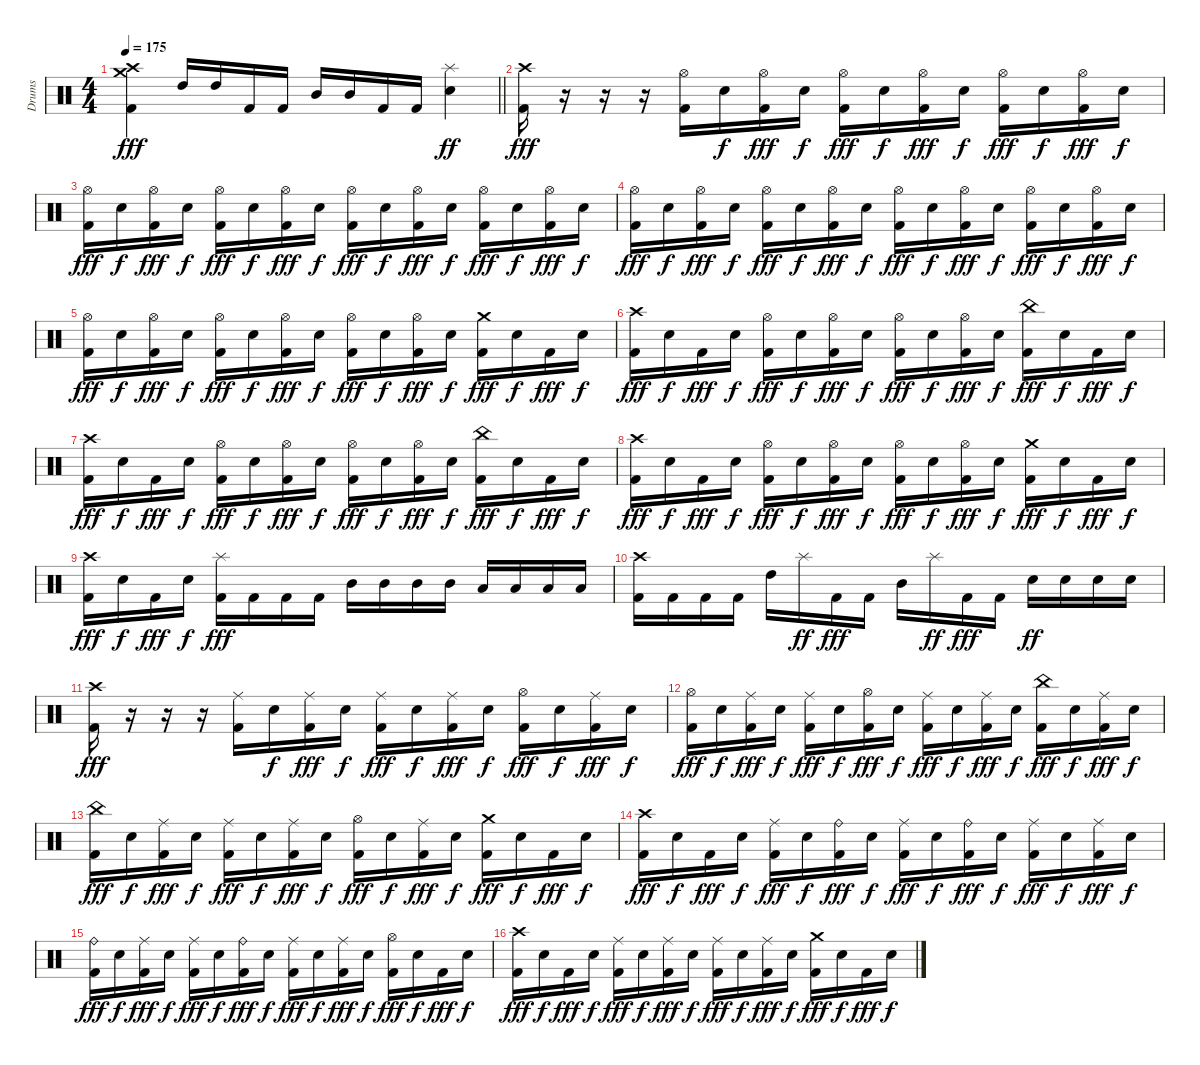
\track ("Drums" "Drums") {instrument percussion}
\staff {score}
\articulation defaults
\ts (4 4)
\tempo 175
\clef neutral
\barLineRight lightlight
\ks c
("Crash high (hit)" "Crash medium (hit)" "Kick (hit) 2").4{dy fff} "High Tom (hit)".16 "High Tom (hit)".16 "Kick (hit) 2".16 "Kick (hit) 2".16 "Mid Tom (hit)".16 "Mid Tom (hit)".16 "Kick (hit) 2".16 "Kick (hit) 2".16 ("Splash (hit)" "Snare (hit) 2").4{dy ff} |
("Crash high (hit)" "Kick (hit) 2").16{dy fff} r.16 r.16 r.16 ("Hi-Hat (open)" "Kick (hit) 2").16 "Snare (hit) 2".16{dy f} ("Hi-Hat (open)" "Kick (hit) 2").16{dy fff} "Snare (hit) 2".16{dy f} ("Hi-Hat (open)" "Kick (hit) 2").16{dy fff} "Snare (hit) 2".16{dy f} ("Hi-Hat (open)" "Kick (hit) 2").16{dy fff} "Snare (hit) 2".16{dy f} ("Hi-Hat (open)" "Kick (hit) 2").16{dy fff} "Snare (hit) 2".16{dy f} ("Hi-Hat (open)" "Kick (hit) 2").16{dy fff} "Snare (hit) 2".16{dy f} |
("Hi-Hat (open)" "Kick (hit) 2").16{dy fff} "Snare (hit) 2".16{dy f} ("Hi-Hat (open)" "Kick (hit) 2").16{dy fff} "Snare (hit) 2".16{dy f} ("Hi-Hat (open)" "Kick (hit) 2").16{dy fff} "Snare (hit) 2".16{dy f} ("Hi-Hat (open)" "Kick (hit) 2").16{dy fff} "Snare (hit) 2".16{dy f} ("Hi-Hat (open)" "Kick (hit) 2").16{dy fff} "Snare (hit) 2".16{dy f} ("Hi-Hat (open)" "Kick (hit) 2").16{dy fff} "Snare (hit) 2".16{dy f} ("Hi-Hat (open)" "Kick (hit) 2").16{dy fff} "Snare (hit) 2".16{dy f} ("Hi-Hat (open)" "Kick (hit) 2").16{dy fff} "Snare (hit) 2".16{dy f} |
("Hi-Hat (open)" "Kick (hit) 2").16{dy fff} "Snare (hit) 2".16{dy f} ("Hi-Hat (open)" "Kick (hit) 2").16{dy fff} "Snare (hit) 2".16{dy f} ("Hi-Hat (open)" "Kick (hit) 2").16{dy fff} "Snare (hit) 2".16{dy f} ("Hi-Hat (open)" "Kick (hit) 2").16{dy fff} "Snare (hit) 2".16{dy f} ("Hi-Hat (open)" "Kick (hit) 2").16{dy fff} "Snare (hit) 2".16{dy f} ("Hi-Hat (open)" "Kick (hit) 2").16{dy fff} "Snare (hit) 2".16{dy f} ("Hi-Hat (open)" "Kick (hit) 2").16{dy fff} "Snare (hit) 2".16{dy f} ("Hi-Hat (open)" "Kick (hit) 2").16{dy fff} "Snare (hit) 2".16{dy f} |
("Hi-Hat (open)" "Kick (hit) 2").16{dy fff} "Snare (hit) 2".16{dy f} ("Hi-Hat (open)" "Kick (hit) 2").16{dy fff} "Snare (hit) 2".16{dy f} ("Hi-Hat (open)" "Kick (hit) 2").16{dy fff} "Snare (hit) 2".16{dy f} ("Hi-Hat (open)" "Kick (hit) 2").16{dy fff} "Snare (hit) 2".16{dy f} ("Hi-Hat (open)" "Kick (hit) 2").16{dy fff} "Snare (hit) 2".16{dy f} ("Hi-Hat (open)" "Kick (hit) 2").16{dy fff} "Snare (hit) 2".16{dy f} ("Crash medium (hit)" "Kick (hit) 2").16{dy fff} "Snare (hit) 2".16{dy f} "Kick (hit) 2".16{dy fff} "Snare (hit) 2".16{dy f} |
("Crash high (hit)" "Kick (hit) 2").16{dy fff} "Snare (hit) 2".16{dy f} "Kick (hit) 2".16{dy fff} "Snare (hit) 2".16{dy f} ("Hi-Hat (open)" "Kick (hit) 2").16{dy fff} "Snare (hit) 2".16{dy f} ("Hi-Hat (open)" "Kick (hit) 2").16{dy fff} "Snare (hit) 2".16{dy f} ("Hi-Hat (open)" "Kick (hit) 2").16{dy fff} "Snare (hit) 2".16{dy f} ("Hi-Hat (open)" "Kick (hit) 2").16{dy fff} "Snare (hit) 2".16{dy f} ("China (hit)" "Kick (hit) 2").16{dy fff} "Snare (hit) 2".16{dy f} "Kick (hit) 2".16{dy fff} "Snare (hit) 2".16{dy f} |
("Crash high (hit)" "Kick (hit) 2").16{dy fff} "Snare (hit) 2".16{dy f} "Kick (hit) 2".16{dy fff} "Snare (hit) 2".16{dy f} ("Hi-Hat (open)" "Kick (hit) 2").16{dy fff} "Snare (hit) 2".16{dy f} ("Hi-Hat (open)" "Kick (hit) 2").16{dy fff} "Snare (hit) 2".16{dy f} ("Hi-Hat (open)" "Kick (hit) 2").16{dy fff} "Snare (hit) 2".16{dy f} ("Hi-Hat (open)" "Kick (hit) 2").16{dy fff} "Snare (hit) 2".16{dy f} ("China (hit)" "Kick (hit) 2").16{dy fff} "Snare (hit) 2".16{dy f} "Kick (hit) 2".16{dy fff} "Snare (hit) 2".16{dy f} |
("Crash high (hit)" "Kick (hit) 2").16{dy fff} "Snare (hit) 2".16{dy f} "Kick (hit) 2".16{dy fff} "Snare (hit) 2".16{dy f} ("Hi-Hat (open)" "Kick (hit) 2").16{dy fff} "Snare (hit) 2".16{dy f} ("Hi-Hat (open)" "Kick (hit) 2").16{dy fff} "Snare (hit) 2".16{dy f} ("Hi-Hat (open)" "Kick (hit) 2").16{dy fff} "Snare (hit) 2".16{dy f} ("Hi-Hat (open)" "Kick (hit) 2").16{dy fff} "Snare (hit) 2".16{dy f} ("Crash medium (hit)" "Kick (hit) 2").16{dy fff} "Snare (hit) 2".16{dy f} "Kick (hit) 2".16{dy fff} "Snare (hit) 2".16{dy f} |
("Crash high (hit)" "Kick (hit) 2").16{dy fff} "Snare (hit) 2".16{dy f} "Kick (hit) 2".16{dy fff} "Snare (hit) 2".16{dy f} ("Splash (hit)" "Kick (hit) 2").16{dy fff} "Kick (hit) 2".16 "Kick (hit) 2".16 "Kick (hit) 2".16 "Mid Tom (hit)".16 "Mid Tom (hit)".16 "Mid Tom (hit)".16 "Mid Tom (hit)".16 "Low Tom (hit)".16 "Low Tom (hit)".16 "Low Tom (hit)".16 "Low Tom (hit)".16 |
("Crash high (hit)" "Kick (hit) 2").16 "Kick (hit) 2".16 "Kick (hit) 2".16 "Kick (hit) 2".16 "High Tom (hit)".16 "Splash (hit)".16{dy ff} "Kick (hit) 2".16{dy fff} "Kick (hit) 2".16 "Mid Tom (hit)".16 "Splash (hit)".16{dy ff} "Kick (hit) 2".16{dy fff} "Kick (hit) 2".16 "Snare (hit) 2".16{dy ff} "Snare (hit) 2".16 "Snare (hit) 2".16 "Snare (hit) 2".16 |
("Crash high (hit)" "Kick (hit) 2").16{dy fff} r.16 r.16 r.16 ("Ride (middle)" "Kick (hit) 2").16 "Snare (hit) 2".16{dy f} ("Ride (middle)" "Kick (hit) 2").16{dy fff} "Snare (hit) 2".16{dy f} ("Ride (middle)" "Kick (hit) 2").16{dy fff} "Snare (hit) 2".16{dy f} ("Ride (middle)" "Kick (hit) 2").16{dy fff} "Snare (hit) 2".16{dy f} ("Hi-Hat (open)" "Kick (hit) 2").16{dy fff} "Snare (hit) 2".16{dy f} ("Ride (middle)" "Kick (hit) 2").16{dy fff} "Snare (hit) 2".16{dy f} |
("Hi-Hat (open)" "Kick (hit) 2").16{dy fff} "Snare (hit) 2".16{dy f} ("Ride (middle)" "Kick (hit) 2").16{dy fff} "Snare (hit) 2".16{dy f} ("Ride (middle)" "Kick (hit) 2").16{dy fff} "Snare (hit) 2".16{dy f} ("Hi-Hat (open)" "Kick (hit) 2").16{dy fff} "Snare (hit) 2".16{dy f} ("Ride (middle)" "Kick (hit) 2").16{dy fff} "Snare (hit) 2".16{dy f} ("Ride (middle)" "Kick (hit) 2").16{dy fff} "Snare (hit) 2".16{dy f} ("China (hit)" "Kick (hit) 2").16{dy fff} "Snare (hit) 2".16{dy f} ("Ride (middle)" "Kick (hit) 2").16{dy fff} "Snare (hit) 2".16{dy f} |
("China (hit)" "Kick (hit) 2").16{dy fff} "Snare (hit) 2".16{dy f} ("Ride (middle)" "Kick (hit) 2").16{dy fff} "Snare (hit) 2".16{dy f} ("Ride (middle)" "Kick (hit) 2").16{dy fff} "Snare (hit) 2".16{dy f} ("Ride (middle)" "Kick (hit) 2").16{dy fff} "Snare (hit) 2".16{dy f} ("Hi-Hat (open)" "Kick (hit) 2").16{dy fff} "Snare (hit) 2".16{dy f} ("Ride (middle)" "Kick (hit) 2").16{dy fff} "Snare (hit) 2".16{dy f} ("Crash medium (hit)" "Kick (hit) 2").16{dy fff} "Snare (hit) 2".16{dy f} "Kick (hit) 2".16{dy fff} "Snare (hit) 2".16{dy f} |
("Crash high (hit)" "Kick (hit) 2").16{dy fff} "Snare (hit) 2".16{dy f} "Kick (hit) 2".16{dy fff} "Snare (hit) 2".16{dy f} ("Ride (middle)" "Kick (hit) 2").16{dy fff} "Snare (hit) 2".16{dy f} ("Ride (bell)" "Kick (hit) 2").16{dy fff} "Snare (hit) 2".16{dy f} ("Ride (middle)" "Kick (hit) 2").16{dy fff} "Snare (hit) 2".16{dy f} ("Ride (bell)" "Kick (hit) 2").16{dy fff} "Snare (hit) 2".16{dy f} ("Ride (middle)" "Kick (hit) 2").16{dy fff} "Snare (hit) 2".16{dy f} ("Ride (middle)" "Kick (hit) 2").16{dy fff} "Snare (hit) 2".16{dy f} |
("Ride (bell)" "Kick (hit) 2").16{dy fff} "Snare (hit) 2".16{dy f} ("Ride (middle)" "Kick (hit) 2").16{dy fff} "Snare (hit) 2".16{dy f} ("Ride (middle)" "Kick (hit) 2").16{dy fff} "Snare (hit) 2".16{dy f} ("Ride (bell)" "Kick (hit) 2").16{dy fff} "Snare (hit) 2".16{dy f} ("Ride (middle)" "Kick (hit) 2").16{dy fff} "Snare (hit) 2".16{dy f} ("Ride (middle)" "Kick (hit) 2").16{dy fff} "Snare (hit) 2".16{dy f} ("Hi-Hat (open)" "Kick (hit) 2").16{dy fff} "Snare (hit) 2".16{dy f} "Kick (hit) 2".16{dy fff} "Snare (hit) 2".16{dy f} |
("Crash high (hit)" "Kick (hit) 2").16{dy fff} "Snare (hit) 2".16{dy f} "Kick (hit) 2".16{dy fff} "Snare (hit) 2".16{dy f} ("Ride (middle)" "Kick (hit) 2").16{dy fff} "Snare (hit) 2".16{dy f} ("Ride (middle)" "Kick (hit) 2").16{dy fff} "Snare (hit) 2".16{dy f} ("Ride (middle)" "Kick (hit) 2").16{dy fff} "Snare (hit) 2".16{dy f} ("Ride (middle)" "Kick (hit) 2").16{dy fff} "Snare (hit) 2".16{dy f} ("Crash medium (hit)" "Kick (hit) 2").16{dy fff} "Snare (hit) 2".16{dy f} "Kick (hit) 2".16{dy fff} "Snare (hit) 2".16{dy f}
